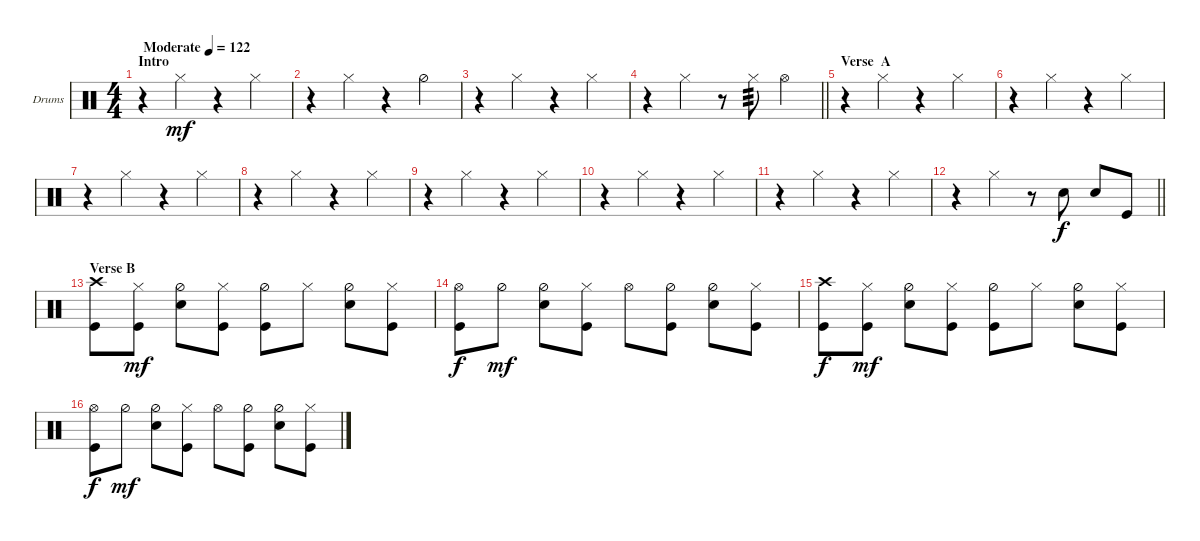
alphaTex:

\bracketExtendMode groupsimilarinstruments
\firstSystemTrackNameOrientation horizontal
\otherSystemsTrackNameOrientation horizontal
\track ("Batteria" "Drums") {instrument percussion}
\staff {score}
\articulation defaults
\ts (4 4)
\beaming (8 2 2 2 2)
\section ("" "Intro")
\tempo (122 "Moderate")
\clef neutral
\ks c
r.4{dy mf} "Hi-Hat (closed)".4 r.4 "Hi-Hat (closed)".4 |
r.4 "Hi-Hat (closed)".4 r.4 "Hi-Hat (half)".4 |
r.4 "Hi-Hat (closed)".4 r.4 "Hi-Hat (closed)".4 |
\barLineRight lightlight
r.4 "Hi-Hat (closed)".4 r.8 "Hi-Hat (closed)".8{tp 3} "Hi-Hat (open)".4 |
\section ("" "Verse  A")
r.4 "Hi-Hat (closed)".4 r.4 "Hi-Hat (closed)".4 |
r.4 "Hi-Hat (closed)".4 r.4 "Hi-Hat (closed)".4 |
r.4 "Hi-Hat (closed)".4 r.4 "Hi-Hat (closed)".4 |
r.4 "Hi-Hat (closed)".4 r.4 "Hi-Hat (closed)".4 |
r.4 "Hi-Hat (closed)".4 r.4 "Hi-Hat (closed)".4 |
r.4 "Hi-Hat (closed)".4 r.4 "Hi-Hat (closed)".4 |
r.4 "Hi-Hat (closed)".4 r.4 "Hi-Hat (closed)".4 |
\barLineRight lightlight
r.4 "Hi-Hat (closed)".4 r.8 "Snare (hit) 2".8{dy f} "Snare (hit) 2".8 "Kick (hit)".8 |
\section ("" "Verse B")
("Kick (hit)" "Crash high (hit)").8 ("Hi-Hat (closed)" "Kick (hit)").8{dy mf} ("Hi-Hat (half)" "Snare (hit) 2").8 ("Hi-Hat (closed)" "Kick (hit)").8 ("Hi-Hat (half)" "Kick (hit)").8 "Hi-Hat (closed)".8 ("Hi-Hat (half)" "Snare (hit) 2").8 ("Hi-Hat (closed)" "Kick (hit)").8 |
("Kick (hit)" "Hi-Hat (open)").8{dy f} "Hi-Hat (half)".8{dy mf} ("Hi-Hat (half)" "Snare (hit) 2").8 ("Hi-Hat (closed)" "Kick (hit)").8 "Hi-Hat (open)".8 ("Hi-Hat (half)" "Kick (hit)").8 ("Hi-Hat (half)" "Snare (hit) 2").8 ("Hi-Hat (closed)" "Kick (hit)").8 |
("Kick (hit)" "Crash high (hit)").8{dy f} ("Hi-Hat (closed)" "Kick (hit)").8{dy mf} ("Hi-Hat (half)" "Snare (hit) 2").8 ("Hi-Hat (closed)" "Kick (hit)").8 ("Hi-Hat (half)" "Kick (hit)").8 "Hi-Hat (closed)".8 ("Hi-Hat (half)" "Snare (hit) 2").8 ("Hi-Hat (closed)" "Kick (hit)").8 |
("Kick (hit)" "Hi-Hat (open)").8{dy f} "Hi-Hat (half)".8{dy mf} ("Hi-Hat (half)" "Snare (hit) 2").8 ("Hi-Hat (closed)" "Kick (hit)").8 "Hi-Hat (open)".8 ("Hi-Hat (half)" "Kick (hit)").8 ("Hi-Hat (half)" "Snare (hit) 2").8 ("Hi-Hat (closed)" "Kick (hit)").8
